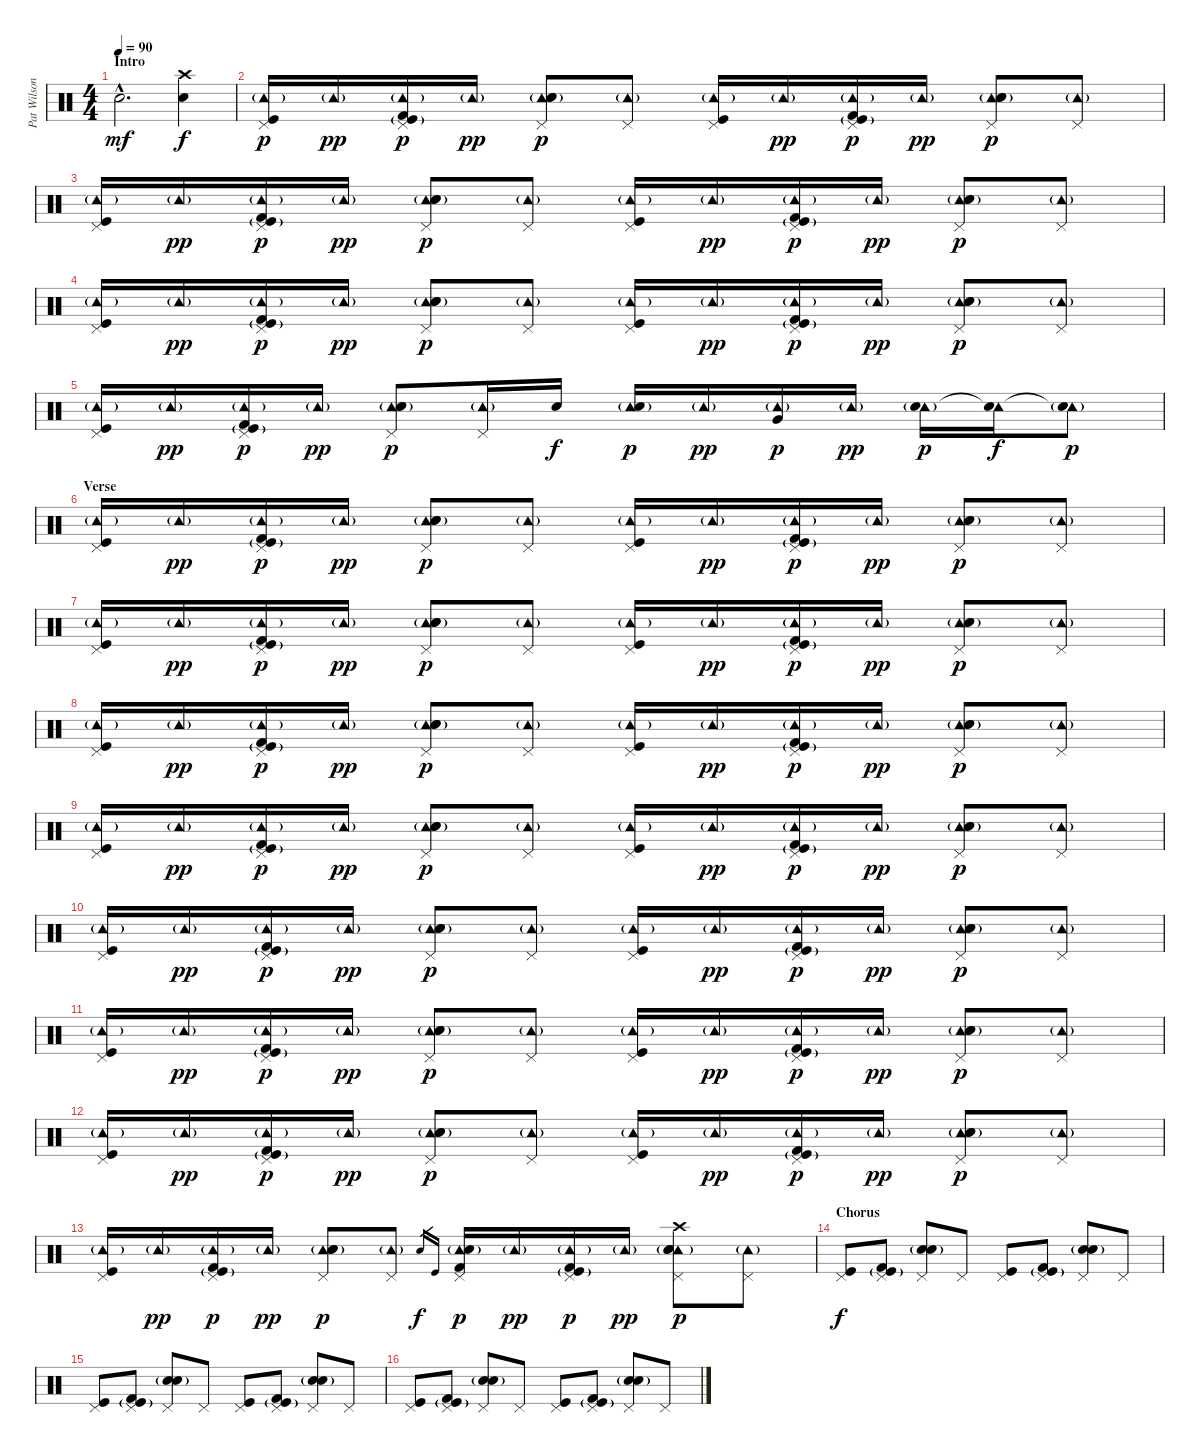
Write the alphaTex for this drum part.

\track ("Pat Wilson" "Pat Wilson") {instrument percussion}
\staff {score}
\articulation defaults
\ts (4 4)
\section ("" "Intro")
\tempo 90
\clef neutral
\ks c "Snare (hit) 2"{tr (40 64) hac}.2{d dy mf}
("Crash high (hit)" "Snare (hit) 2").4{dy f} |
("Tambourine (hit)"{g} "Pedal Hi-Hat (hit)" "Kick (hit)").16{dy p} "Tambourine (hit)"{g}.16{dy pp} ("Tambourine (hit)"{g} "Pedal Hi-Hat (hit)" "Kick (hit)"{g} "Kick (hit) 2").16{dy p} "Tambourine (hit)"{g}.16{dy pp} ("Tambourine (hit)"{g} "Pedal Hi-Hat (hit)" "Hand Clap (hit)"{g} "Electric Snare (hit)").8{dy p} ("Tambourine (hit)"{g} "Pedal Hi-Hat (hit)").8 ("Tambourine (hit)"{g} "Pedal Hi-Hat (hit)" "Kick (hit)").16 "Tambourine (hit)"{g}.16{dy pp} ("Tambourine (hit)"{g} "Pedal Hi-Hat (hit)" "Kick (hit)"{g} "Kick (hit) 2").16{dy p} "Tambourine (hit)"{g}.16{dy pp} ("Tambourine (hit)"{g} "Pedal Hi-Hat (hit)" "Hand Clap (hit)"{g} "Electric Snare (hit)").8{dy p} ("Tambourine (hit)"{g} "Pedal Hi-Hat (hit)").8 |
("Tambourine (hit)"{g} "Pedal Hi-Hat (hit)" "Kick (hit)").16 "Tambourine (hit)"{g}.16{dy pp} ("Tambourine (hit)"{g} "Pedal Hi-Hat (hit)" "Kick (hit)"{g} "Kick (hit) 2").16{dy p} "Tambourine (hit)"{g}.16{dy pp} ("Tambourine (hit)"{g} "Pedal Hi-Hat (hit)" "Hand Clap (hit)"{g} "Electric Snare (hit)").8{dy p} ("Tambourine (hit)"{g} "Pedal Hi-Hat (hit)").8 ("Tambourine (hit)"{g} "Pedal Hi-Hat (hit)" "Kick (hit)").16 "Tambourine (hit)"{g}.16{dy pp} ("Tambourine (hit)"{g} "Pedal Hi-Hat (hit)" "Kick (hit)"{g} "Kick (hit) 2").16{dy p} "Tambourine (hit)"{g}.16{dy pp} ("Tambourine (hit)"{g} "Pedal Hi-Hat (hit)" "Hand Clap (hit)"{g} "Electric Snare (hit)").8{dy p} ("Tambourine (hit)"{g} "Pedal Hi-Hat (hit)").8 |
("Tambourine (hit)"{g} "Pedal Hi-Hat (hit)" "Kick (hit)").16 "Tambourine (hit)"{g}.16{dy pp} ("Tambourine (hit)"{g} "Pedal Hi-Hat (hit)" "Kick (hit)"{g} "Kick (hit) 2").16{dy p} "Tambourine (hit)"{g}.16{dy pp} ("Tambourine (hit)"{g} "Pedal Hi-Hat (hit)" "Hand Clap (hit)"{g} "Electric Snare (hit)").8{dy p} ("Tambourine (hit)"{g} "Pedal Hi-Hat (hit)").8 ("Tambourine (hit)"{g} "Pedal Hi-Hat (hit)" "Kick (hit)").16 "Tambourine (hit)"{g}.16{dy pp} ("Tambourine (hit)"{g} "Pedal Hi-Hat (hit)" "Kick (hit)"{g} "Kick (hit) 2").16{dy p} "Tambourine (hit)"{g}.16{dy pp} ("Tambourine (hit)"{g} "Pedal Hi-Hat (hit)" "Hand Clap (hit)"{g} "Electric Snare (hit)").8{dy p} ("Tambourine (hit)"{g} "Pedal Hi-Hat (hit)").8 |
("Tambourine (hit)"{g} "Pedal Hi-Hat (hit)" "Kick (hit)").16 "Tambourine (hit)"{g}.16{dy pp} ("Tambourine (hit)"{g} "Pedal Hi-Hat (hit)" "Kick (hit)"{g} "Kick (hit) 2").16{dy p} "Tambourine (hit)"{g}.16{dy pp} ("Tambourine (hit)"{g} "Pedal Hi-Hat (hit)" "Hand Clap (hit)"{g} "Electric Snare (hit)").8{dy p} ("Tambourine (hit)"{g} "Pedal Hi-Hat (hit)").16 "Electric Snare (hit)".16{dy f} ("Tambourine (hit)"{g} "Electric Snare (hit)").16{dy p} "Tambourine (hit)"{g}.16{dy pp} ("Tambourine (hit)"{g} "Very Low Tom (hit)").16{dy p} "Tambourine (hit)"{g}.16{dy pp} ("Tambourine (hit)"{g} "Snare (hit) 2").16{dy p} ("Tambourine (hit)"{t} "Snare (hit) 2").16{dy f} ("Tambourine (hit)"{g} "Snare (hit)"{t}).8{dy p} |
\section ("" "Verse")
("Tambourine (hit)"{g} "Pedal Hi-Hat (hit)" "Kick (hit)").16 "Tambourine (hit)"{g}.16{dy pp} ("Tambourine (hit)"{g} "Pedal Hi-Hat (hit)" "Kick (hit)"{g} "Kick (hit) 2").16{dy p} "Tambourine (hit)"{g}.16{dy pp} ("Tambourine (hit)"{g} "Pedal Hi-Hat (hit)" "Hand Clap (hit)"{g} "Electric Snare (hit)").8{dy p} ("Tambourine (hit)"{g} "Pedal Hi-Hat (hit)").8 ("Tambourine (hit)"{g} "Pedal Hi-Hat (hit)" "Kick (hit)").16 "Tambourine (hit)"{g}.16{dy pp} ("Tambourine (hit)"{g} "Pedal Hi-Hat (hit)" "Kick (hit)"{g} "Kick (hit) 2").16{dy p} "Tambourine (hit)"{g}.16{dy pp} ("Tambourine (hit)"{g} "Pedal Hi-Hat (hit)" "Hand Clap (hit)"{g} "Electric Snare (hit)").8{dy p} ("Tambourine (hit)"{g} "Pedal Hi-Hat (hit)").8 |
("Tambourine (hit)"{g} "Pedal Hi-Hat (hit)" "Kick (hit)").16 "Tambourine (hit)"{g}.16{dy pp} ("Tambourine (hit)"{g} "Pedal Hi-Hat (hit)" "Kick (hit)"{g} "Kick (hit) 2").16{dy p} "Tambourine (hit)"{g}.16{dy pp} ("Tambourine (hit)"{g} "Pedal Hi-Hat (hit)" "Hand Clap (hit)"{g} "Electric Snare (hit)").8{dy p} ("Tambourine (hit)"{g} "Pedal Hi-Hat (hit)").8 ("Tambourine (hit)"{g} "Pedal Hi-Hat (hit)" "Kick (hit)").16 "Tambourine (hit)"{g}.16{dy pp} ("Tambourine (hit)"{g} "Pedal Hi-Hat (hit)" "Kick (hit)"{g} "Kick (hit) 2").16{dy p} "Tambourine (hit)"{g}.16{dy pp} ("Tambourine (hit)"{g} "Pedal Hi-Hat (hit)" "Hand Clap (hit)"{g} "Electric Snare (hit)").8{dy p} ("Tambourine (hit)"{g} "Pedal Hi-Hat (hit)").8 |
("Tambourine (hit)"{g} "Pedal Hi-Hat (hit)" "Kick (hit)").16 "Tambourine (hit)"{g}.16{dy pp} ("Tambourine (hit)"{g} "Pedal Hi-Hat (hit)" "Kick (hit)"{g} "Kick (hit) 2").16{dy p} "Tambourine (hit)"{g}.16{dy pp} ("Tambourine (hit)"{g} "Pedal Hi-Hat (hit)" "Hand Clap (hit)"{g} "Electric Snare (hit)").8{dy p} ("Tambourine (hit)"{g} "Pedal Hi-Hat (hit)").8 ("Tambourine (hit)"{g} "Pedal Hi-Hat (hit)" "Kick (hit)").16 "Tambourine (hit)"{g}.16{dy pp} ("Tambourine (hit)"{g} "Pedal Hi-Hat (hit)" "Kick (hit)"{g} "Kick (hit) 2").16{dy p} "Tambourine (hit)"{g}.16{dy pp} ("Tambourine (hit)"{g} "Pedal Hi-Hat (hit)" "Hand Clap (hit)"{g} "Electric Snare (hit)").8{dy p} ("Tambourine (hit)"{g} "Pedal Hi-Hat (hit)").8 |
("Tambourine (hit)"{g} "Pedal Hi-Hat (hit)" "Kick (hit)").16 "Tambourine (hit)"{g}.16{dy pp} ("Tambourine (hit)"{g} "Pedal Hi-Hat (hit)" "Kick (hit)"{g} "Kick (hit) 2").16{dy p} "Tambourine (hit)"{g}.16{dy pp} ("Tambourine (hit)"{g} "Pedal Hi-Hat (hit)" "Hand Clap (hit)"{g} "Electric Snare (hit)").8{dy p} ("Tambourine (hit)"{g} "Pedal Hi-Hat (hit)").8 ("Tambourine (hit)"{g} "Pedal Hi-Hat (hit)" "Kick (hit)").16 "Tambourine (hit)"{g}.16{dy pp} ("Tambourine (hit)"{g} "Pedal Hi-Hat (hit)" "Kick (hit)"{g} "Kick (hit) 2").16{dy p} "Tambourine (hit)"{g}.16{dy pp} ("Tambourine (hit)"{g} "Pedal Hi-Hat (hit)" "Hand Clap (hit)"{g} "Electric Snare (hit)").8{dy p} ("Tambourine (hit)"{g} "Pedal Hi-Hat (hit)").8 |
("Tambourine (hit)"{g} "Pedal Hi-Hat (hit)" "Kick (hit)").16 "Tambourine (hit)"{g}.16{dy pp} ("Tambourine (hit)"{g} "Pedal Hi-Hat (hit)" "Kick (hit)"{g} "Kick (hit) 2").16{dy p} "Tambourine (hit)"{g}.16{dy pp} ("Tambourine (hit)"{g} "Pedal Hi-Hat (hit)" "Hand Clap (hit)"{g} "Electric Snare (hit)").8{dy p} ("Tambourine (hit)"{g} "Pedal Hi-Hat (hit)").8 ("Tambourine (hit)"{g} "Pedal Hi-Hat (hit)" "Kick (hit)").16 "Tambourine (hit)"{g}.16{dy pp} ("Tambourine (hit)"{g} "Pedal Hi-Hat (hit)" "Kick (hit)"{g} "Kick (hit) 2").16{dy p} "Tambourine (hit)"{g}.16{dy pp} ("Tambourine (hit)"{g} "Pedal Hi-Hat (hit)" "Hand Clap (hit)"{g} "Electric Snare (hit)").8{dy p} ("Tambourine (hit)"{g} "Pedal Hi-Hat (hit)").8 |
("Tambourine (hit)"{g} "Pedal Hi-Hat (hit)" "Kick (hit)").16 "Tambourine (hit)"{g}.16{dy pp} ("Tambourine (hit)"{g} "Pedal Hi-Hat (hit)" "Kick (hit)"{g} "Kick (hit) 2").16{dy p} "Tambourine (hit)"{g}.16{dy pp} ("Tambourine (hit)"{g} "Pedal Hi-Hat (hit)" "Hand Clap (hit)"{g} "Electric Snare (hit)").8{dy p} ("Tambourine (hit)"{g} "Pedal Hi-Hat (hit)").8 ("Tambourine (hit)"{g} "Pedal Hi-Hat (hit)" "Kick (hit)").16 "Tambourine (hit)"{g}.16{dy pp} ("Tambourine (hit)"{g} "Pedal Hi-Hat (hit)" "Kick (hit)"{g} "Kick (hit) 2").16{dy p} "Tambourine (hit)"{g}.16{dy pp} ("Tambourine (hit)"{g} "Pedal Hi-Hat (hit)" "Hand Clap (hit)"{g} "Electric Snare (hit)").8{dy p} ("Tambourine (hit)"{g} "Pedal Hi-Hat (hit)").8 |
("Tambourine (hit)"{g} "Pedal Hi-Hat (hit)" "Kick (hit)").16 "Tambourine (hit)"{g}.16{dy pp} ("Tambourine (hit)"{g} "Pedal Hi-Hat (hit)" "Kick (hit)"{g} "Kick (hit) 2").16{dy p} "Tambourine (hit)"{g}.16{dy pp} ("Tambourine (hit)"{g} "Pedal Hi-Hat (hit)" "Hand Clap (hit)"{g} "Electric Snare (hit)").8{dy p} ("Tambourine (hit)"{g} "Pedal Hi-Hat (hit)").8 ("Tambourine (hit)"{g} "Pedal Hi-Hat (hit)" "Kick (hit)").16 "Tambourine (hit)"{g}.16{dy pp} ("Tambourine (hit)"{g} "Pedal Hi-Hat (hit)" "Kick (hit)"{g} "Kick (hit) 2").16{dy p} "Tambourine (hit)"{g}.16{dy pp} ("Tambourine (hit)"{g} "Pedal Hi-Hat (hit)" "Hand Clap (hit)"{g} "Electric Snare (hit)").8{dy p} ("Tambourine (hit)"{g} "Pedal Hi-Hat (hit)").8 |
("Tambourine (hit)"{g} "Pedal Hi-Hat (hit)" "Kick (hit)").16 "Tambourine (hit)"{g}.16{dy pp} ("Tambourine (hit)"{g} "Pedal Hi-Hat (hit)" "Kick (hit)"{g} "Kick (hit) 2").16{dy p} "Tambourine (hit)"{g}.16{dy pp} ("Tambourine (hit)"{g} "Pedal Hi-Hat (hit)" "Hand Clap (hit)"{g} "Electric Snare (hit)").8{dy p} ("Tambourine (hit)"{g} "Pedal Hi-Hat (hit)").8 "Electric Snare (hit)".16{gr dy f} "Kick (hit)".16{gr} ("Tambourine (hit)"{g} "Pedal Hi-Hat (hit)" "Snare (hit) 2" "Kick (hit) 2").16{dy p} "Tambourine (hit)"{g}.16{dy pp} ("Tambourine (hit)"{g} "Pedal Hi-Hat (hit)" "Kick (hit)"{g} "Kick (hit) 2").16{dy p} "Tambourine (hit)"{g}.16{dy pp} ("Tambourine (hit)"{g} "Pedal Hi-Hat (hit)" "Crash high (hit)" "Hand Clap (hit)"{g} "Electric Snare (hit)").8{dy p} ("Tambourine (hit)"{g} "Pedal Hi-Hat (hit)").8 |
\section ("" "Chorus")
("Pedal Hi-Hat (hit)" "Kick (hit)").8{dy f} ("Pedal Hi-Hat (hit)" "Kick (hit)"{g} "Kick (hit) 2").8 ("Pedal Hi-Hat (hit)" "Hand Clap (hit)"{g} "Electric Snare (hit)").8 "Pedal Hi-Hat (hit)".8 ("Pedal Hi-Hat (hit)" "Kick (hit)").8 ("Pedal Hi-Hat (hit)" "Kick (hit)"{g} "Kick (hit) 2").8 ("Pedal Hi-Hat (hit)" "Hand Clap (hit)"{g} "Electric Snare (hit)").8 "Pedal Hi-Hat (hit)".8 |
("Pedal Hi-Hat (hit)" "Kick (hit)").8 ("Pedal Hi-Hat (hit)" "Kick (hit)"{g} "Kick (hit) 2").8 ("Pedal Hi-Hat (hit)" "Hand Clap (hit)"{g} "Electric Snare (hit)").8 "Pedal Hi-Hat (hit)".8 ("Pedal Hi-Hat (hit)" "Kick (hit)").8 ("Pedal Hi-Hat (hit)" "Kick (hit)"{g} "Kick (hit) 2").8 ("Pedal Hi-Hat (hit)" "Hand Clap (hit)"{g} "Electric Snare (hit)").8 "Pedal Hi-Hat (hit)".8 |
("Pedal Hi-Hat (hit)" "Kick (hit)").8 ("Pedal Hi-Hat (hit)" "Kick (hit)"{g} "Kick (hit) 2").8 ("Pedal Hi-Hat (hit)" "Hand Clap (hit)"{g} "Electric Snare (hit)").8 "Pedal Hi-Hat (hit)".8 ("Pedal Hi-Hat (hit)" "Kick (hit)").8 ("Pedal Hi-Hat (hit)" "Kick (hit)"{g} "Kick (hit) 2").8 ("Pedal Hi-Hat (hit)" "Hand Clap (hit)"{g} "Electric Snare (hit)").8 "Pedal Hi-Hat (hit)".8
